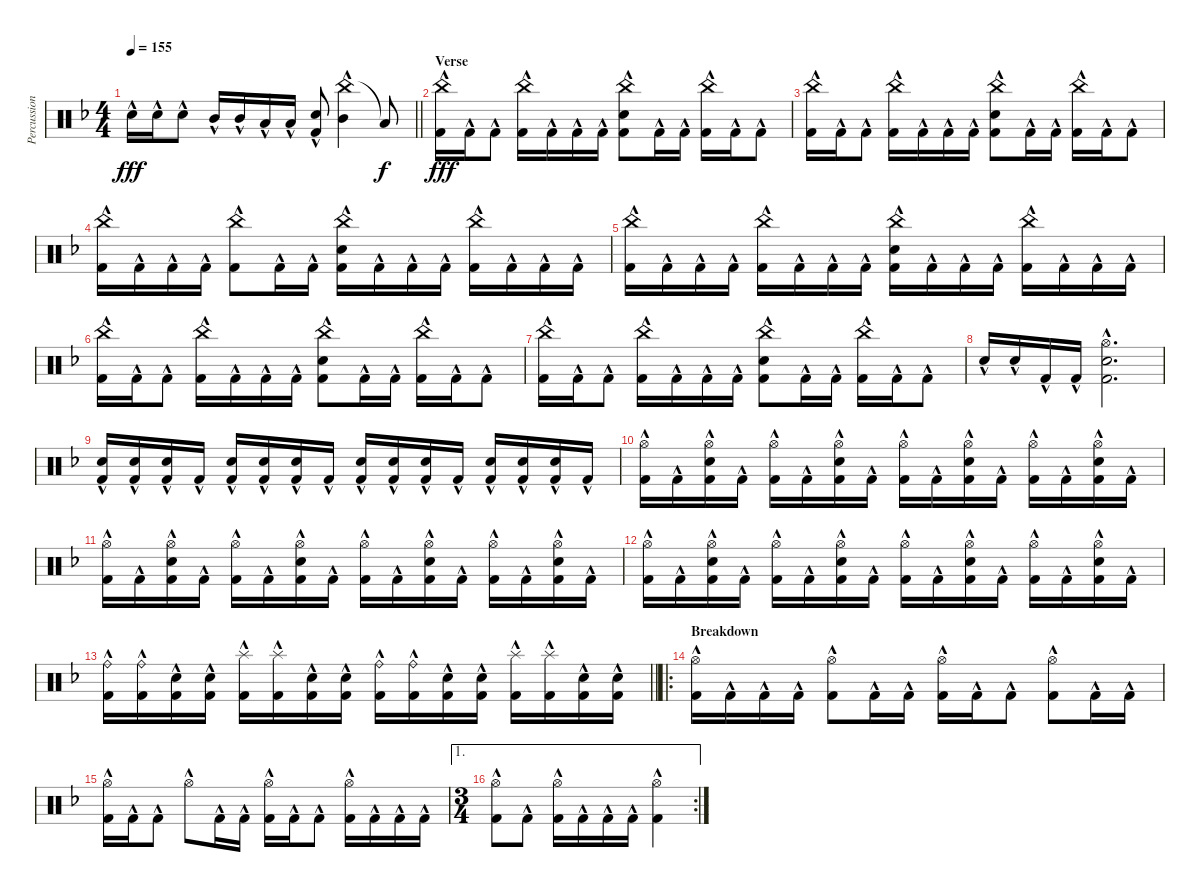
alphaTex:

\track ("Percussion" "Percussion") {instrument percussion}
\staff {score}
\articulation defaults
\ts (4 4)
\tempo 155
\clef neutral
\barLineRight lightlight
\ks f "Electric Snare (hit)"{hac}.16{dy fff} "Electric Snare (hit)"{hac}.16 "Electric Snare (hit)"{hac}.8 "Mid Tom (hit)"{hac}.16 "Mid Tom (hit)"{hac}.16 "Low Tom (hit)"{hac}.16 "Low Tom (hit)"{hac}.16
("Electric Snare (hit)"{hac} "Kick (hit) 2"{hac}).8 ("China (hit)"{hac} "Mid Tom (hit)"{hac}).4 "Low Tom (hit)"{t}.8{dy f} |
\section ("" "Verse")
("China (hit)"{hac} "Kick (hit) 2"{hac}).16{dy fff} "Kick (hit) 2"{hac}.16 "Kick (hit) 2"{hac}.8 ("China (hit)"{hac} "Kick (hit) 2"{hac}).16 "Kick (hit) 2"{hac}.16 "Kick (hit) 2"{hac}.16 "Kick (hit) 2"{hac}.16 ("China (hit)"{hac} "Electric Snare (hit)"{hac} "Kick (hit) 2"{hac}).8 "Kick (hit) 2"{hac}.16 "Kick (hit) 2"{hac}.16 ("China (hit)"{hac} "Kick (hit) 2"{hac}).16 "Kick (hit) 2"{hac}.16 "Kick (hit) 2"{hac}.8 |
("China (hit)"{hac} "Kick (hit) 2"{hac}).16 "Kick (hit) 2"{hac}.16 "Kick (hit) 2"{hac}.8 ("China (hit)"{hac} "Kick (hit) 2"{hac}).16 "Kick (hit) 2"{hac}.16 "Kick (hit) 2"{hac}.16 "Kick (hit) 2"{hac}.16 ("China (hit)"{hac} "Electric Snare (hit)"{hac} "Kick (hit) 2"{hac}).8 "Kick (hit) 2"{hac}.16 "Kick (hit) 2"{hac}.16 ("China (hit)"{hac} "Kick (hit) 2"{hac}).16 "Kick (hit) 2"{hac}.16 "Kick (hit) 2"{hac}.8 |
("China (hit)"{hac} "Kick (hit) 2"{hac}).16 "Kick (hit) 2"{hac}.16 "Kick (hit) 2"{hac}.16 "Kick (hit) 2"{hac}.16 ("China (hit)"{hac} "Kick (hit) 2"{hac}).8 "Kick (hit) 2"{hac}.16 "Kick (hit) 2"{hac}.16 ("China (hit)"{hac} "Electric Snare (hit)"{hac} "Kick (hit) 2"{hac}).16 "Kick (hit) 2"{hac}.16 "Kick (hit) 2"{hac}.16 "Kick (hit) 2"{hac}.16 ("China (hit)"{hac} "Kick (hit) 2"{hac}).16 "Kick (hit) 2"{hac}.16 "Kick (hit) 2"{hac}.16 "Kick (hit) 2"{hac}.16 |
("China (hit)"{hac} "Kick (hit) 2"{hac}).16 "Kick (hit) 2"{hac}.16 "Kick (hit) 2"{hac}.16 "Kick (hit) 2"{hac}.16 ("China (hit)"{hac} "Kick (hit) 2"{hac}).16 "Kick (hit) 2"{hac}.16 "Kick (hit) 2"{hac}.16 "Kick (hit) 2"{hac}.16 ("China (hit)"{hac} "Electric Snare (hit)"{hac} "Kick (hit) 2"{hac}).16 "Kick (hit) 2"{hac}.16 "Kick (hit) 2"{hac}.16 "Kick (hit) 2"{hac}.16 ("China (hit)"{hac} "Kick (hit) 2"{hac}).16 "Kick (hit) 2"{hac}.16 "Kick (hit) 2"{hac}.16 "Kick (hit) 2"{hac}.16 |
("China (hit)"{hac} "Kick (hit) 2"{hac}).16 "Kick (hit) 2"{hac}.16 "Kick (hit) 2"{hac}.8 ("China (hit)"{hac} "Kick (hit) 2"{hac}).16 "Kick (hit) 2"{hac}.16 "Kick (hit) 2"{hac}.16 "Kick (hit) 2"{hac}.16 ("China (hit)"{hac} "Electric Snare (hit)"{hac} "Kick (hit) 2"{hac}).8 "Kick (hit) 2"{hac}.16 "Kick (hit) 2"{hac}.16 ("China (hit)"{hac} "Kick (hit) 2"{hac}).16 "Kick (hit) 2"{hac}.16 "Kick (hit) 2"{hac}.8 |
("China (hit)"{hac} "Kick (hit) 2"{hac}).16 "Kick (hit) 2"{hac}.16 "Kick (hit) 2"{hac}.8 ("China (hit)"{hac} "Kick (hit) 2"{hac}).16 "Kick (hit) 2"{hac}.16 "Kick (hit) 2"{hac}.16 "Kick (hit) 2"{hac}.16 ("China (hit)"{hac} "Electric Snare (hit)"{hac} "Kick (hit) 2"{hac}).8 "Kick (hit) 2"{hac}.16 "Kick (hit) 2"{hac}.16 ("China (hit)"{hac} "Kick (hit) 2"{hac}).16 "Kick (hit) 2"{hac}.16 "Kick (hit) 2"{hac}.8 |
"Electric Snare (hit)"{hac}.16 "Electric Snare (hit)"{hac}.16 "Kick (hit) 2"{hac}.16 "Kick (hit) 2"{hac}.16 ("Hi-Hat (open)"{hac} "Electric Snare (hit)"{hac} "Kick (hit) 2"{hac}).2{d} |
("Electric Snare (hit)"{hac} "Kick (hit) 2"{hac}).16 ("Electric Snare (hit)"{hac} "Kick (hit) 2"{hac}).16 ("Electric Snare (hit)"{hac} "Kick (hit) 2"{hac}).16 "Kick (hit) 2"{hac}.16 ("Electric Snare (hit)"{hac} "Kick (hit) 2"{hac}).16 ("Electric Snare (hit)"{hac} "Kick (hit) 2"{hac}).16 ("Electric Snare (hit)"{hac} "Kick (hit) 2"{hac}).16 "Kick (hit) 2"{hac}.16 ("Electric Snare (hit)"{hac} "Kick (hit) 2"{hac}).16 ("Electric Snare (hit)"{hac} "Kick (hit) 2"{hac}).16 ("Electric Snare (hit)"{hac} "Kick (hit) 2"{hac}).16 "Kick (hit) 2"{hac}.16 ("Electric Snare (hit)"{hac} "Kick (hit) 2"{hac}).16 ("Electric Snare (hit)"{hac} "Kick (hit) 2"{hac}).16 ("Electric Snare (hit)"{hac} "Kick (hit) 2"{hac}).16 "Kick (hit) 2"{hac}.16 |
("Hi-Hat (open)"{hac} "Kick (hit) 2"{hac}).16 "Kick (hit) 2"{hac}.16 ("Hi-Hat (open)"{hac} "Electric Snare (hit)"{hac} "Kick (hit) 2"{hac}).16 "Kick (hit) 2"{hac}.16 ("Hi-Hat (open)"{hac} "Kick (hit) 2"{hac}).16 "Kick (hit) 2"{hac}.16 ("Hi-Hat (open)"{hac} "Electric Snare (hit)"{hac} "Kick (hit) 2"{hac}).16 "Kick (hit) 2"{hac}.16 ("Hi-Hat (open)"{hac} "Kick (hit) 2"{hac}).16 "Kick (hit) 2"{hac}.16 ("Hi-Hat (open)"{hac} "Electric Snare (hit)"{hac} "Kick (hit) 2"{hac}).16 "Kick (hit) 2"{hac}.16 ("Hi-Hat (open)"{hac} "Kick (hit) 2"{hac}).16 "Kick (hit) 2"{hac}.16 ("Hi-Hat (open)"{hac} "Electric Snare (hit)"{hac} "Kick (hit) 2"{hac}).16 "Kick (hit) 2"{hac}.16 |
("Hi-Hat (open)"{hac} "Kick (hit) 2"{hac}).16 "Kick (hit) 2"{hac}.16 ("Hi-Hat (open)"{hac} "Electric Snare (hit)"{hac} "Kick (hit) 2"{hac}).16 "Kick (hit) 2"{hac}.16 ("Hi-Hat (open)"{hac} "Kick (hit) 2"{hac}).16 "Kick (hit) 2"{hac}.16 ("Hi-Hat (open)"{hac} "Electric Snare (hit)"{hac} "Kick (hit) 2"{hac}).16 "Kick (hit) 2"{hac}.16 ("Hi-Hat (open)"{hac} "Kick (hit) 2"{hac}).16 "Kick (hit) 2"{hac}.16 ("Hi-Hat (open)"{hac} "Electric Snare (hit)"{hac} "Kick (hit) 2"{hac}).16 "Kick (hit) 2"{hac}.16 ("Hi-Hat (open)"{hac} "Kick (hit) 2"{hac}).16 "Kick (hit) 2"{hac}.16 ("Hi-Hat (open)"{hac} "Electric Snare (hit)"{hac} "Kick (hit) 2"{hac}).16 "Kick (hit) 2"{hac}.16 |
("Hi-Hat (open)"{hac} "Kick (hit) 2"{hac}).16 "Kick (hit) 2"{hac}.16 ("Hi-Hat (open)"{hac} "Electric Snare (hit)"{hac} "Kick (hit) 2"{hac}).16 "Kick (hit) 2"{hac}.16 ("Hi-Hat (open)"{hac} "Kick (hit) 2"{hac}).16 "Kick (hit) 2"{hac}.16 ("Hi-Hat (open)"{hac} "Electric Snare (hit)"{hac} "Kick (hit) 2"{hac}).16 "Kick (hit) 2"{hac}.16 ("Hi-Hat (open)"{hac} "Kick (hit) 2"{hac}).16 "Kick (hit) 2"{hac}.16 ("Hi-Hat (open)"{hac} "Electric Snare (hit)"{hac} "Kick (hit) 2"{hac}).16 "Kick (hit) 2"{hac}.16 ("Hi-Hat (open)"{hac} "Kick (hit) 2"{hac}).16 "Kick (hit) 2"{hac}.16 ("Hi-Hat (open)"{hac} "Electric Snare (hit)"{hac} "Kick (hit) 2"{hac}).16 "Kick (hit) 2"{hac}.16 |
\barLineRight lightlight
("Ride (bell)"{hac} "Kick (hit) 2"{hac}).16 ("Ride (bell)"{hac} "Kick (hit) 2"{hac}).16 ("Electric Snare (hit)"{hac} "Kick (hit) 2"{hac}).16 ("Electric Snare (hit)"{hac} "Kick (hit) 2"{hac}).16 ("Splash (hit)"{hac} "Kick (hit) 2"{hac}).16 ("Splash (hit)"{hac} "Kick (hit) 2"{hac}).16 ("Electric Snare (hit)"{hac} "Kick (hit) 2"{hac}).16 ("Electric Snare (hit)"{hac} "Kick (hit) 2"{hac}).16 ("Ride (bell)"{hac} "Kick (hit) 2"{hac}).16 ("Ride (bell)"{hac} "Kick (hit) 2"{hac}).16 ("Electric Snare (hit)"{hac} "Kick (hit) 2"{hac}).16 ("Electric Snare (hit)"{hac} "Kick (hit) 2"{hac}).16 ("Splash (hit)"{hac} "Kick (hit) 2"{hac}).16 ("Splash (hit)"{hac} "Kick (hit) 2"{hac}).16 ("Electric Snare (hit)"{hac} "Kick (hit) 2"{hac}).16 ("Electric Snare (hit)"{hac} "Kick (hit) 2"{hac}).16 |
\ro
\section ("" "Breakdown")
("Hi-Hat (open)"{hac} "Kick (hit) 2"{hac}).16 "Kick (hit) 2"{hac}.16 "Kick (hit) 2"{hac}.16 "Kick (hit) 2"{hac}.16 ("Hi-Hat (open)"{hac} "Kick (hit) 2"{hac}).8 "Kick (hit) 2"{hac}.16 "Kick (hit) 2"{hac}.16 ("Hi-Hat (open)"{hac} "Kick (hit) 2"{hac}).16 "Kick (hit) 2"{hac}.16 "Kick (hit) 2"{hac}.8 ("Hi-Hat (open)"{hac} "Kick (hit) 2"{hac}).8 "Kick (hit) 2"{hac}.16 "Kick (hit) 2"{hac}.16 |
("Hi-Hat (open)"{hac} "Kick (hit) 2"{hac}).16 "Kick (hit) 2"{hac}.16 "Kick (hit) 2"{hac}.8 "Hi-Hat (open)"{hac}.8 "Kick (hit) 2"{hac}.16 "Kick (hit) 2"{hac}.16 ("Hi-Hat (open)"{hac} "Kick (hit) 2"{hac}).16 "Kick (hit) 2"{hac}.16 "Kick (hit) 2"{hac}.8 ("Hi-Hat (open)"{hac} "Kick (hit) 2"{hac}).16 "Kick (hit) 2"{hac}.16 "Kick (hit) 2"{hac}.16 "Kick (hit) 2"{hac}.16 |
\ae 1
\rc 2
\ts (3 4)
("Hi-Hat (open)"{hac} "Kick (hit) 2"{hac}).8 "Kick (hit) 2"{hac}.8 ("Hi-Hat (open)"{hac} "Kick (hit) 2"{hac}).16 "Kick (hit) 2"{hac}.16 "Kick (hit) 2"{hac}.16 "Kick (hit) 2"{hac}.16 ("Hi-Hat (open)"{hac} "Kick (hit) 2"{hac}).4
